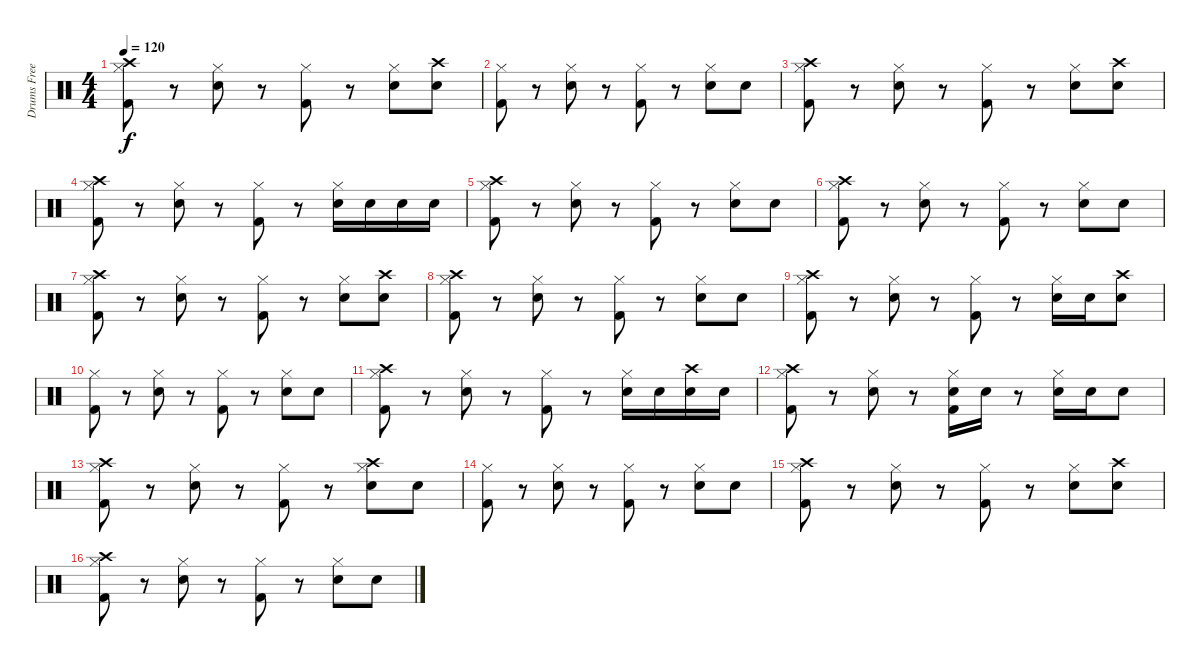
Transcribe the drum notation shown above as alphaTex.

\track ("Drums Freese" "Drums Free") {instrument percussion}
\staff {score}
\articulation defaults
\ts (4 4)
\tempo 120
\clef neutral
\ks c
("Hi-Hat (closed)" "Crash high (hit)" "Kick (hit) 2").8{dy f} r.8 ("Hi-Hat (closed)" "Snare (hit) 2").8 r.8 ("Hi-Hat (closed)" "Kick (hit) 2").8 r.8 ("Hi-Hat (closed)" "Snare (hit) 2").8 ("Crash high (hit)" "Snare (hit) 2").8 |
("Hi-Hat (closed)" "Kick (hit) 2").8 r.8 ("Hi-Hat (closed)" "Snare (hit) 2").8 r.8 ("Hi-Hat (closed)" "Kick (hit) 2").8 r.8 ("Hi-Hat (closed)" "Snare (hit) 2").8 "Snare (hit) 2".8 |
("Hi-Hat (closed)" "Crash high (hit)" "Kick (hit) 2").8 r.8 ("Hi-Hat (closed)" "Snare (hit) 2").8 r.8 ("Hi-Hat (closed)" "Kick (hit) 2").8 r.8 ("Hi-Hat (closed)" "Snare (hit) 2").8 ("Crash high (hit)" "Snare (hit) 2").8 |
("Hi-Hat (closed)" "Crash high (hit)" "Kick (hit) 2").8 r.8 ("Hi-Hat (closed)" "Snare (hit) 2").8 r.8 ("Hi-Hat (closed)" "Kick (hit) 2").8 r.8 ("Hi-Hat (closed)" "Snare (hit) 2").16 "Snare (hit) 2".16 "Snare (hit) 2".16 "Snare (hit) 2".16 |
("Hi-Hat (closed)" "Crash high (hit)" "Kick (hit) 2").8 r.8 ("Hi-Hat (closed)" "Snare (hit) 2").8 r.8 ("Hi-Hat (closed)" "Kick (hit) 2").8 r.8 ("Hi-Hat (closed)" "Snare (hit) 2").8 "Snare (hit) 2".8 |
("Hi-Hat (closed)" "Crash high (hit)" "Kick (hit) 2").8 r.8 ("Hi-Hat (closed)" "Snare (hit) 2").8 r.8 ("Hi-Hat (closed)" "Kick (hit) 2").8 r.8 ("Hi-Hat (closed)" "Snare (hit) 2").8 "Snare (hit) 2".8 |
("Hi-Hat (closed)" "Crash high (hit)" "Kick (hit) 2").8 r.8 ("Hi-Hat (closed)" "Snare (hit) 2").8 r.8 ("Hi-Hat (closed)" "Kick (hit) 2").8 r.8 ("Hi-Hat (closed)" "Snare (hit) 2").8 ("Crash high (hit)" "Snare (hit) 2").8 |
("Hi-Hat (closed)" "Crash high (hit)" "Kick (hit) 2").8 r.8 ("Hi-Hat (closed)" "Snare (hit) 2").8 r.8 ("Hi-Hat (closed)" "Kick (hit) 2").8 r.8 ("Hi-Hat (closed)" "Snare (hit) 2").8 "Snare (hit) 2".8 |
("Hi-Hat (closed)" "Crash high (hit)" "Kick (hit) 2").8 r.8 ("Hi-Hat (closed)" "Snare (hit) 2").8 r.8 ("Hi-Hat (closed)" "Kick (hit) 2").8 r.8 ("Hi-Hat (closed)" "Snare (hit) 2").16 "Snare (hit) 2".16 ("Crash high (hit)" "Snare (hit) 2").8 |
("Hi-Hat (closed)" "Kick (hit) 2").8 r.8 ("Hi-Hat (closed)" "Snare (hit) 2").8 r.8 ("Hi-Hat (closed)" "Kick (hit) 2").8 r.8 ("Hi-Hat (closed)" "Snare (hit) 2").8 "Snare (hit) 2".8 |
("Hi-Hat (closed)" "Crash high (hit)" "Kick (hit) 2").8 r.8 ("Hi-Hat (closed)" "Snare (hit) 2").8 r.8 ("Hi-Hat (closed)" "Kick (hit) 2").8 r.8 ("Hi-Hat (closed)" "Snare (hit) 2").16 "Snare (hit) 2".16 ("Crash high (hit)" "Snare (hit) 2").16 "Snare (hit) 2".16 |
("Hi-Hat (closed)" "Crash high (hit)" "Kick (hit) 2").8 r.8 ("Hi-Hat (closed)" "Snare (hit) 2").8 r.8 ("Hi-Hat (closed)" "Snare (hit) 2" "Kick (hit) 2").16 "Snare (hit) 2".16 r.8 ("Hi-Hat (closed)" "Snare (hit) 2").16 "Snare (hit) 2".16 "Snare (hit) 2".8 |
("Hi-Hat (closed)" "Crash high (hit)" "Kick (hit) 2").8 r.8 ("Hi-Hat (closed)" "Snare (hit) 2").8 r.8 ("Hi-Hat (closed)" "Kick (hit) 2").8 r.8 ("Hi-Hat (closed)" "Crash high (hit)" "Snare (hit) 2").8 "Snare (hit) 2".8 |
("Hi-Hat (closed)" "Kick (hit) 2").8 r.8 ("Hi-Hat (closed)" "Snare (hit) 2").8 r.8 ("Hi-Hat (closed)" "Kick (hit) 2").8 r.8 ("Hi-Hat (closed)" "Snare (hit) 2").8 "Snare (hit) 2".8 |
("Hi-Hat (closed)" "Crash high (hit)" "Kick (hit) 2").8 r.8 ("Hi-Hat (closed)" "Snare (hit) 2").8 r.8 ("Hi-Hat (closed)" "Kick (hit) 2").8 r.8 ("Hi-Hat (closed)" "Snare (hit) 2").8 ("Crash high (hit)" "Snare (hit) 2").8 |
("Hi-Hat (closed)" "Crash high (hit)" "Kick (hit) 2").8 r.8 ("Hi-Hat (closed)" "Snare (hit) 2").8 r.8 ("Hi-Hat (closed)" "Kick (hit) 2").8 r.8 ("Hi-Hat (closed)" "Snare (hit) 2").8 "Snare (hit) 2".8
